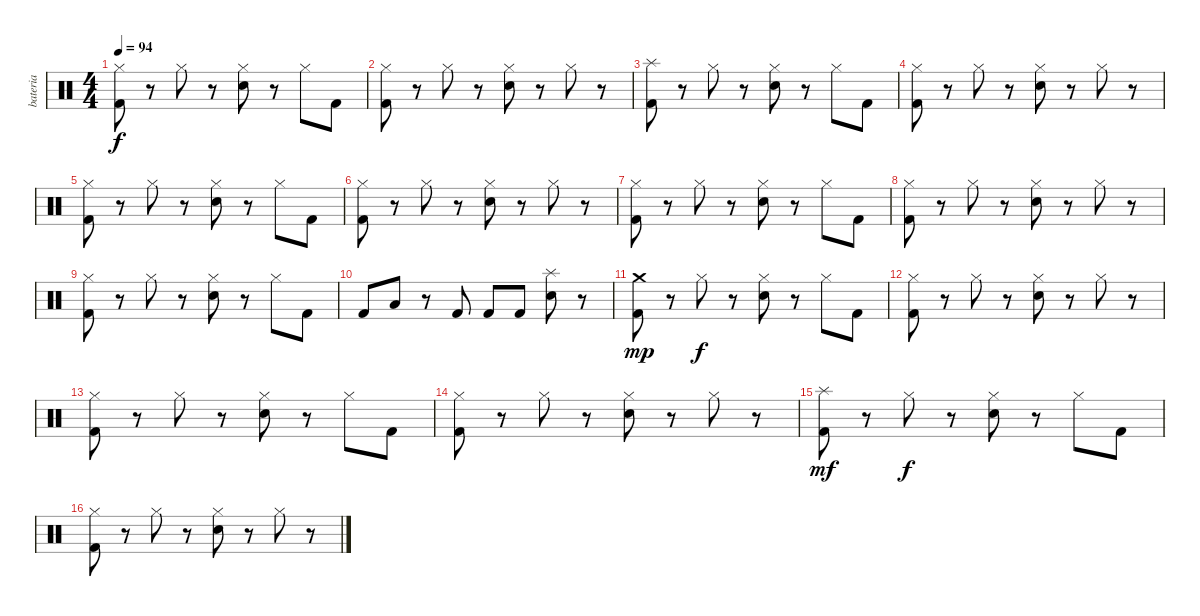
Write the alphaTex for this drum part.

\track ("bateria" "bateria") {instrument percussion}
\staff {score}
\articulation defaults
\ts (4 4)
\tempo 94
\clef neutral
\ks c
("Hi-Hat (closed)" "Kick (hit) 2").8{dy f} r.8 "Hi-Hat (closed)".8 r.8 ("Hi-Hat (closed)" "Snare (hit) 2").8 r.8 "Hi-Hat (closed)".8 "Kick (hit) 2".8 |
("Hi-Hat (closed)" "Kick (hit) 2").8 r.8 "Hi-Hat (closed)".8 r.8 ("Hi-Hat (closed)" "Snare (hit) 2").8 r.8 "Hi-Hat (closed)".8 r.8 |
("Splash (hit)" "Kick (hit) 2").8 r.8 "Hi-Hat (closed)".8 r.8 ("Hi-Hat (closed)" "Snare (hit) 2").8 r.8 "Hi-Hat (closed)".8 "Kick (hit) 2".8 |
("Hi-Hat (closed)" "Kick (hit) 2").8 r.8 "Hi-Hat (closed)".8 r.8 ("Hi-Hat (closed)" "Snare (hit) 2").8 r.8 "Hi-Hat (closed)".8 r.8 |
("Hi-Hat (closed)" "Kick (hit) 2").8 r.8 "Hi-Hat (closed)".8 r.8 ("Hi-Hat (closed)" "Snare (hit) 2").8 r.8 "Hi-Hat (closed)".8 "Kick (hit) 2".8 |
("Hi-Hat (closed)" "Kick (hit) 2").8 r.8 "Hi-Hat (closed)".8 r.8 ("Hi-Hat (closed)" "Snare (hit) 2").8 r.8 "Hi-Hat (closed)".8 r.8 |
("Hi-Hat (closed)" "Kick (hit) 2").8 r.8 "Hi-Hat (closed)".8 r.8 ("Hi-Hat (closed)" "Snare (hit) 2").8 r.8 "Hi-Hat (closed)".8 "Kick (hit) 2".8 |
("Hi-Hat (closed)" "Kick (hit) 2").8 r.8 "Hi-Hat (closed)".8 r.8 ("Hi-Hat (closed)" "Snare (hit) 2").8 r.8 "Hi-Hat (closed)".8 r.8 |
("Hi-Hat (closed)" "Kick (hit) 2").8 r.8 "Hi-Hat (closed)".8 r.8 ("Hi-Hat (closed)" "Snare (hit) 2").8 r.8 "Hi-Hat (closed)".8 "Kick (hit) 2".8 |
"Kick (hit) 2".8 "Low Floor Tom (hit)".8 r.8 "Kick (hit) 2".8 "Kick (hit) 2".8 "Kick (hit) 2".8 ("Splash (hit)" "Snare (hit) 2").8 r.8 |
("Crash medium (hit)" "Kick (hit) 2").8{dy mp} r.8 "Hi-Hat (closed)".8{dy f} r.8 ("Hi-Hat (closed)" "Snare (hit) 2").8 r.8 "Hi-Hat (closed)".8 "Kick (hit) 2".8 |
("Hi-Hat (closed)" "Kick (hit) 2").8 r.8 "Hi-Hat (closed)".8 r.8 ("Hi-Hat (closed)" "Snare (hit) 2").8 r.8 "Hi-Hat (closed)".8 r.8 |
("Hi-Hat (closed)" "Kick (hit) 2").8 r.8 "Hi-Hat (closed)".8 r.8 ("Hi-Hat (closed)" "Snare (hit) 2").8 r.8 "Hi-Hat (closed)".8 "Kick (hit) 2".8 |
("Hi-Hat (closed)" "Kick (hit) 2").8 r.8 "Hi-Hat (closed)".8 r.8 ("Hi-Hat (closed)" "Snare (hit) 2").8 r.8 "Hi-Hat (closed)".8 r.8 |
("Splash (hit)" "Kick (hit) 2").8{dy mf} r.8 "Hi-Hat (closed)".8{dy f} r.8 ("Hi-Hat (closed)" "Snare (hit) 2").8 r.8 "Hi-Hat (closed)".8 "Kick (hit) 2".8 |
("Hi-Hat (closed)" "Kick (hit) 2").8 r.8 "Hi-Hat (closed)".8 r.8 ("Hi-Hat (closed)" "Snare (hit) 2").8 r.8 "Hi-Hat (closed)".8 r.8
